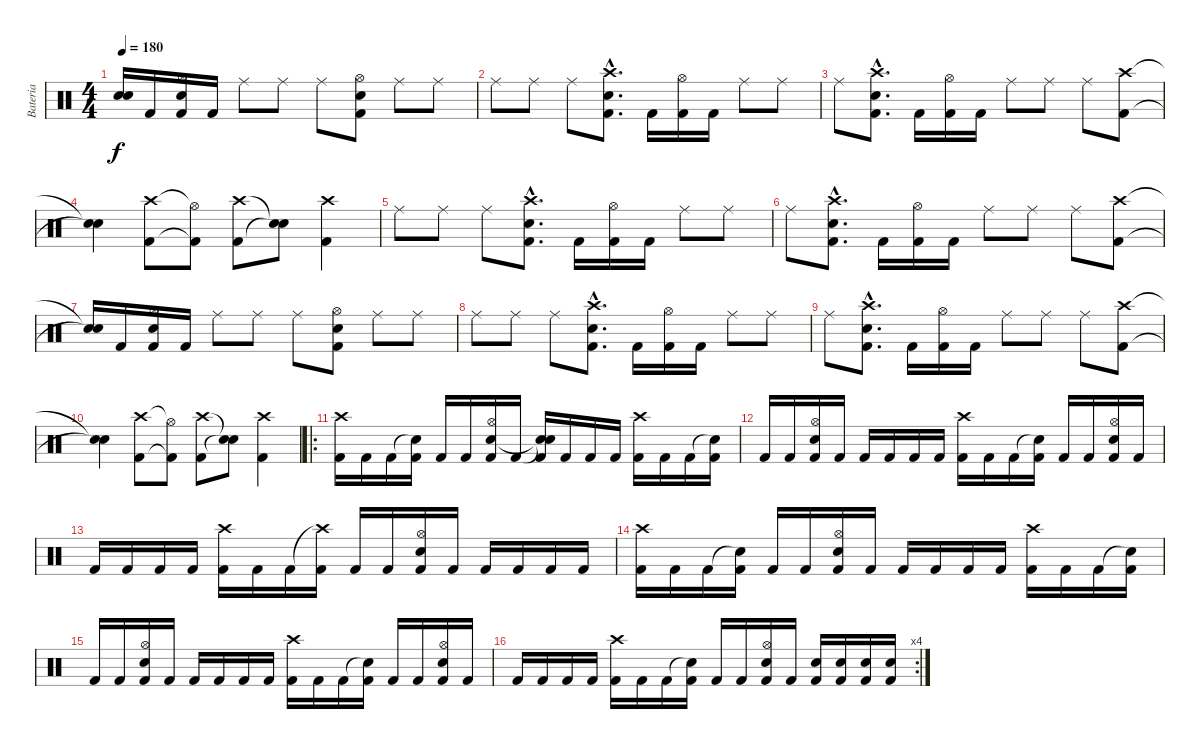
\track ("Bateria" "Bateria") {instrument percussion}
\staff {score}
\articulation defaults
\ts (4 4)
\tempo 180
\clef neutral
\ks c
("Snare (hit)"{t} "Snare (hit)"{t}).16{dy f} "Kick (hit) 2".16 ("Hi-Hat (open)" "Electric Snare (hit)" "Kick (hit) 2").16 "Kick (hit) 2".16 "Ride (middle)".8 "Ride (middle)".8 "Ride (middle)".8 ("Hi-Hat (open)" "Electric Snare (hit)" "Kick (hit) 2").8 "Ride (middle)".8 "Ride (middle)".8 |
"Ride (middle)".8 "Ride (middle)".8 "Ride (middle)".8 ("Crash high (hit)"{hac} "Electric Snare (hit)"{hac} "Kick (hit) 2"{hac}).8{d} "Kick (hit) 2".16 ("Hi-Hat (open)" "Kick (hit) 2").16 "Kick (hit) 2".16 "Ride (middle)".8 "Ride (middle)".8 |
"Ride (middle)".8 ("Crash high (hit)"{hac} "Electric Snare (hit)"{hac} "Kick (hit) 2"{hac}).8{d} "Kick (hit) 2".16 ("Hi-Hat (open)" "Kick (hit) 2").16 "Kick (hit) 2".16 "Ride (middle)".8 "Ride (middle)".8 "Ride (middle)".8 ("Crash high (hit)" "Kick (hit) 2").8 |
("Snare (hit)"{t} "Snare (hit)"{t}).4 ("Crash high (hit)" "Kick (hit) 2").8 ("Hi-Hat (open)"{t} "Kick (hit) 2"{t}).8 ("Crash high (hit)" "Kick (hit) 2").8 ("Snare (hit)"{t} "Snare (hit)"{t}).8 ("Crash high (hit)" "Kick (hit) 2").4 |
"Ride (middle)".8 "Ride (middle)".8 "Ride (middle)".8 ("Crash high (hit)"{hac} "Electric Snare (hit)"{hac} "Kick (hit) 2"{hac}).8{d} "Kick (hit) 2".16 ("Hi-Hat (open)" "Kick (hit) 2").16 "Kick (hit) 2".16 "Ride (middle)".8 "Ride (middle)".8 |
"Ride (middle)".8 ("Crash high (hit)"{hac} "Electric Snare (hit)"{hac} "Kick (hit) 2"{hac}).8{d} "Kick (hit) 2".16 ("Hi-Hat (open)" "Kick (hit) 2").16 "Kick (hit) 2".16 "Ride (middle)".8 "Ride (middle)".8 "Ride (middle)".8 ("Crash high (hit)" "Kick (hit) 2").8 |
("Snare (hit)"{t} "Snare (hit)"{t}).16 "Kick (hit) 2".16 ("Hi-Hat (open)" "Electric Snare (hit)" "Kick (hit) 2").16 "Kick (hit) 2".16 "Ride (middle)".8 "Ride (middle)".8 "Ride (middle)".8 ("Hi-Hat (open)" "Electric Snare (hit)" "Kick (hit) 2").8 "Ride (middle)".8 "Ride (middle)".8 |
"Ride (middle)".8 "Ride (middle)".8 "Ride (middle)".8 ("Crash high (hit)"{hac} "Electric Snare (hit)"{hac} "Kick (hit) 2"{hac}).8{d} "Kick (hit) 2".16 ("Hi-Hat (open)" "Kick (hit) 2").16 "Kick (hit) 2".16 "Ride (middle)".8 "Ride (middle)".8 |
"Ride (middle)".8 ("Crash high (hit)"{hac} "Electric Snare (hit)"{hac} "Kick (hit) 2"{hac}).8{d} "Kick (hit) 2".16 ("Hi-Hat (open)" "Kick (hit) 2").16 "Kick (hit) 2".16 "Ride (middle)".8 "Ride (middle)".8 "Ride (middle)".8 ("Crash high (hit)" "Kick (hit) 2").8 |
("Snare (hit)"{t} "Snare (hit)"{t}).4 ("Crash high (hit)" "Kick (hit) 2").8 ("Hi-Hat (open)"{t} "Kick (hit) 2"{t}).8 ("Crash high (hit)" "Kick (hit) 2").8 ("Snare (hit)"{t} "Snare (hit)"{t}).8 ("Crash high (hit)" "Kick (hit) 2").4 |
\ro
("Crash high (hit)" "Kick (hit) 2").16 "Kick (hit) 2".16 "Kick (hit) 2".16 ("Snare (hit)"{t} "Kick (hit) 2").16 "Kick (hit) 2".16 "Kick (hit) 2".16 ("Hi-Hat (open)" "Electric Snare (hit)" "Kick (hit) 2").16 "Kick (hit) 2".16 ("Snare (hit)"{t} "Electric Snare (hit)"{t} "Kick (hit) 2").16 "Kick (hit) 2".16 "Kick (hit) 2".16 "Kick (hit) 2".16 ("Crash high (hit)" "Kick (hit) 2").16 "Kick (hit) 2".16 "Kick (hit) 2".16 ("Snare (hit)"{t} "Kick (hit) 2").16 |
"Kick (hit) 2".16 "Kick (hit) 2".16 ("Hi-Hat (open)" "Electric Snare (hit)" "Kick (hit) 2").16 "Kick (hit) 2".16 "Kick (hit) 2".16 "Kick (hit) 2".16 "Kick (hit) 2".16 "Kick (hit) 2".16 ("Crash high (hit)" "Kick (hit) 2").16 "Kick (hit) 2".16 "Kick (hit) 2".16 ("Snare (hit)"{t} "Kick (hit) 2").16 "Kick (hit) 2".16 "Kick (hit) 2".16 ("Hi-Hat (open)" "Electric Snare (hit)" "Kick (hit) 2").16 "Kick (hit) 2".16 |
"Kick (hit) 2".16 "Kick (hit) 2".16 "Kick (hit) 2".16 "Kick (hit) 2".16 ("Crash high (hit)" "Kick (hit) 2").16 "Kick (hit) 2".16 "Kick (hit) 2".16 ("Crash high (hit)"{t} "Kick (hit) 2").16 "Kick (hit) 2".16 "Kick (hit) 2".16 ("Hi-Hat (open)" "Electric Snare (hit)" "Kick (hit) 2").16 "Kick (hit) 2".16 "Kick (hit) 2".16 "Kick (hit) 2".16 "Kick (hit) 2".16 "Kick (hit) 2".16 |
("Crash high (hit)" "Kick (hit) 2").16 "Kick (hit) 2".16 "Kick (hit) 2".16 ("Snare (hit)"{t} "Kick (hit) 2").16 "Kick (hit) 2".16 "Kick (hit) 2".16 ("Hi-Hat (open)" "Electric Snare (hit)" "Kick (hit) 2").16 "Kick (hit) 2".16 "Kick (hit) 2".16 "Kick (hit) 2".16 "Kick (hit) 2".16 "Kick (hit) 2".16 ("Crash high (hit)" "Kick (hit) 2").16 "Kick (hit) 2".16 "Kick (hit) 2".16 ("Snare (hit)"{t} "Kick (hit) 2").16 |
"Kick (hit) 2".16 "Kick (hit) 2".16 ("Hi-Hat (open)" "Electric Snare (hit)" "Kick (hit) 2").16 "Kick (hit) 2".16 "Kick (hit) 2".16 "Kick (hit) 2".16 "Kick (hit) 2".16 "Kick (hit) 2".16 ("Crash high (hit)" "Kick (hit) 2").16 "Kick (hit) 2".16 "Kick (hit) 2".16 ("Snare (hit)"{t} "Kick (hit) 2").16 "Kick (hit) 2".16 "Kick (hit) 2".16 ("Hi-Hat (open)" "Electric Snare (hit)" "Kick (hit) 2").16 "Kick (hit) 2".16 |
\rc 4 "Kick (hit) 2".16 "Kick (hit) 2".16 "Kick (hit) 2".16 "Kick (hit) 2".16
("Crash high (hit)" "Kick (hit) 2").16 "Kick (hit) 2".16 "Kick (hit) 2".16 ("Snare (hit)"{t} "Kick (hit) 2").16 "Kick (hit) 2".16 "Kick (hit) 2".16 ("Hi-Hat (open)" "Electric Snare (hit)" "Kick (hit) 2").16 "Kick (hit) 2".16 ("Electric Snare (hit)" "Kick (hit) 2").16 ("Electric Snare (hit)" "Kick (hit) 2").16 ("Electric Snare (hit)" "Kick (hit) 2").16 ("Electric Snare (hit)" "Kick (hit) 2").16
